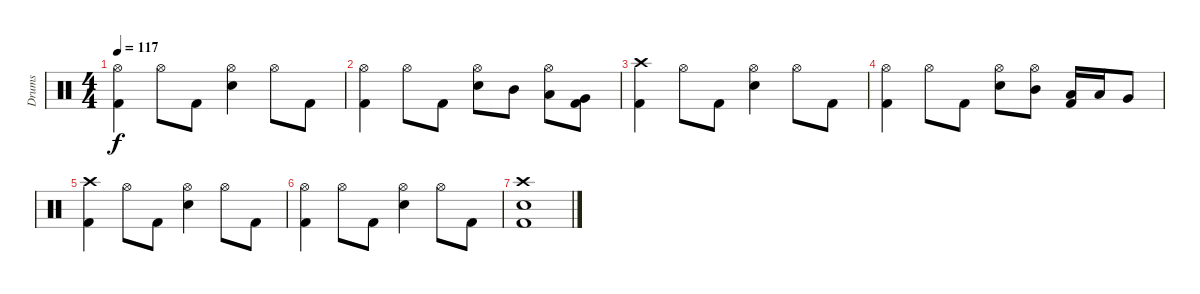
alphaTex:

\track ("Drums" "Drums") {instrument percussion}
\staff {score}
\articulation defaults
\ts (4 4)
\tempo 117
\clef neutral
\ks c
("Kick (hit) 2" "Hi-Hat (open)").4{dy f} "Hi-Hat (open)".8 "Kick (hit) 2".8 ("Snare (hit) 2" "Hi-Hat (open)").4 "Hi-Hat (open)".8 "Kick (hit) 2".8 |
("Kick (hit) 2" "Hi-Hat (open)").4 "Hi-Hat (open)".8 "Kick (hit) 2".8 ("Snare (hit) 2" "Hi-Hat (open)").8 "Mid Tom (hit)".8 ("Low Tom (hit)" "Hi-Hat (open)").8 ("Kick (hit) 2" "Very Low Tom (hit)").8 |
("Kick (hit) 2" "Crash high (hit)").4 "Hi-Hat (open)".8 "Kick (hit) 2".8 ("Snare (hit) 2" "Hi-Hat (open)").4 "Hi-Hat (open)".8 "Kick (hit) 2".8 |
("Kick (hit) 2" "Hi-Hat (open)").4 "Hi-Hat (open)".8 "Kick (hit) 2".8 ("Snare (hit) 2" "Hi-Hat (open)").8 ("Mid Tom (hit)" "Hi-Hat (open)").8 ("Kick (hit) 2" "Low Tom (hit)").16 "Low Tom (hit)".16 "Very Low Tom (hit)".8 |
("Kick (hit) 2" "Crash high (hit)").4 "Hi-Hat (open)".8 "Kick (hit) 2".8 ("Snare (hit) 2" "Hi-Hat (open)").4 "Hi-Hat (open)".8 "Kick (hit) 2".8 |
("Kick (hit) 2" "Hi-Hat (open)").4 "Hi-Hat (open)".8 "Kick (hit) 2".8 ("Snare (hit) 2" "Hi-Hat (open)").4 "Hi-Hat (open)".8 "Kick (hit) 2".8 |
("Crash high (hit)" "Kick (hit) 2" "Snare (hit) 2").1
